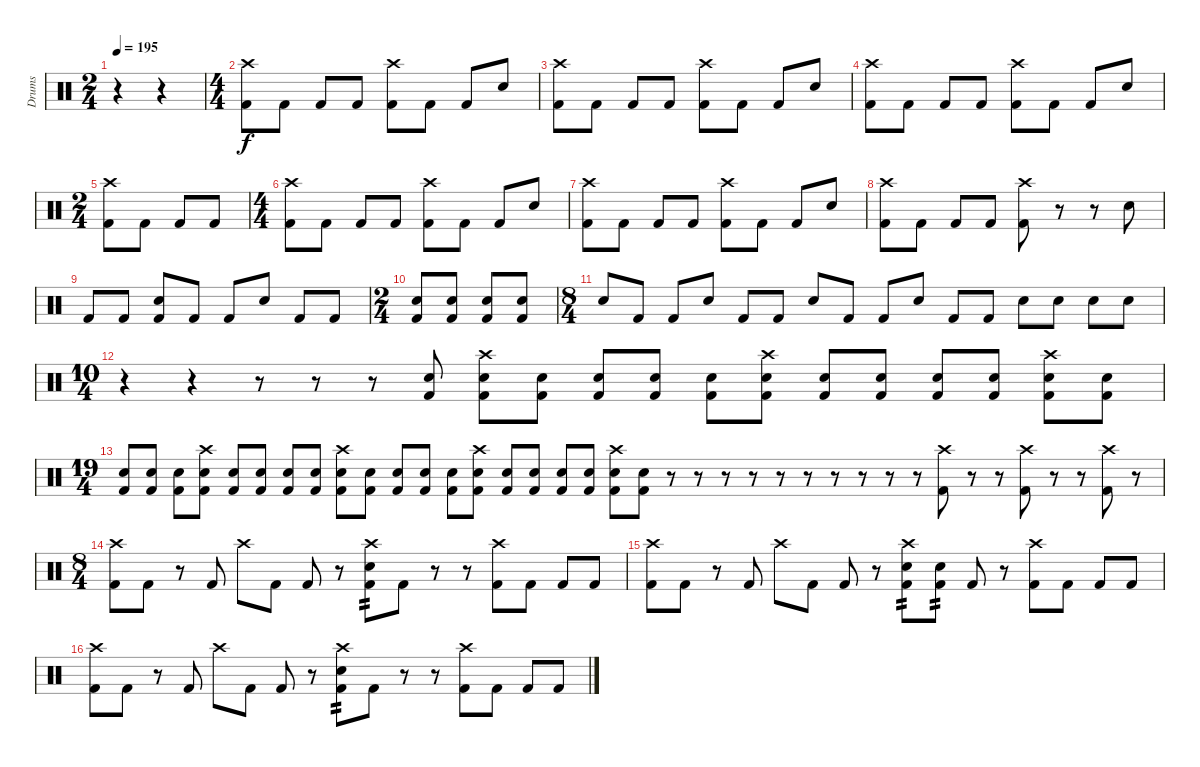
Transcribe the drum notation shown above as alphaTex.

\track ("Drums" "Drums") {instrument percussion}
\staff
\articulation defaults
\ts (2 4)
\tempo 195
\clef neutral
\ks c
r.4{dy f} r.4 |
\ts (4 4)
("Crash high (hit)" "Kick (hit) 2").8 "Kick (hit) 2".8 "Kick (hit) 2".8 "Kick (hit) 2".8 ("Crash high (hit)" "Kick (hit) 2").8 "Kick (hit) 2".8 "Kick (hit) 2".8 "Electric Snare (hit)".8 |
("Crash high (hit)" "Kick (hit) 2").8 "Kick (hit) 2".8 "Kick (hit) 2".8 "Kick (hit) 2".8 ("Crash high (hit)" "Kick (hit) 2").8 "Kick (hit) 2".8 "Kick (hit) 2".8 "Electric Snare (hit)".8 |
("Crash high (hit)" "Kick (hit) 2").8 "Kick (hit) 2".8 "Kick (hit) 2".8 "Kick (hit) 2".8 ("Crash high (hit)" "Kick (hit) 2").8 "Kick (hit) 2".8 "Kick (hit) 2".8 "Electric Snare (hit)".8 |
\ts (2 4)
("Crash high (hit)" "Kick (hit) 2").8 "Kick (hit) 2".8 "Kick (hit) 2".8 "Kick (hit) 2".8 |
\ts (4 4)
("Crash high (hit)" "Kick (hit) 2").8 "Kick (hit) 2".8 "Kick (hit) 2".8 "Kick (hit) 2".8 ("Crash high (hit)" "Kick (hit) 2").8 "Kick (hit) 2".8 "Kick (hit) 2".8 "Electric Snare (hit)".8 |
("Crash high (hit)" "Kick (hit) 2").8 "Kick (hit) 2".8 "Kick (hit) 2".8 "Kick (hit) 2".8 ("Crash high (hit)" "Kick (hit) 2").8 "Kick (hit) 2".8 "Kick (hit) 2".8 "Electric Snare (hit)".8 |
("Crash high (hit)" "Kick (hit) 2").8 "Kick (hit) 2".8 "Kick (hit) 2".8 "Kick (hit) 2".8 ("Crash high (hit)" "Kick (hit) 2").8 r.8 r.8 "Electric Snare (hit)".8 |
"Kick (hit) 2".8 "Kick (hit) 2".8 ("Electric Snare (hit)" "Kick (hit) 2").8 "Kick (hit) 2".8 "Kick (hit) 2".8 "Electric Snare (hit)".8 "Kick (hit) 2".8 "Kick (hit) 2".8 |
\ts (2 4)
("Electric Snare (hit)" "Kick (hit) 2").8 ("Electric Snare (hit)" "Kick (hit) 2").8 ("Electric Snare (hit)" "Kick (hit) 2").8 ("Electric Snare (hit)" "Kick (hit) 2").8 |
\ts (8 4)
"Electric Snare (hit)".8 "Kick (hit) 2".8 "Kick (hit) 2".8 "Electric Snare (hit)".8 "Kick (hit) 2".8 "Kick (hit) 2".8 "Electric Snare (hit)".8 "Kick (hit) 2".8 "Kick (hit) 2".8 "Electric Snare (hit)".8 "Kick (hit) 2".8 "Kick (hit) 2".8 "Electric Snare (hit)".8 "Electric Snare (hit)".8 "Electric Snare (hit)".8 "Electric Snare (hit)".8 |
\ts (10 4)
r.4 r.4 r.8 r.8 r.8 ("Electric Snare (hit)" "Kick (hit) 2").8 ("Crash high (hit)" "Electric Snare (hit)" "Kick (hit) 2").8 ("Electric Snare (hit)" "Kick (hit) 2").8 ("Electric Snare (hit)" "Kick (hit) 2").8 ("Electric Snare (hit)" "Kick (hit) 2").8 ("Electric Snare (hit)" "Kick (hit) 2").8 ("Crash high (hit)" "Electric Snare (hit)" "Kick (hit) 2").8 ("Electric Snare (hit)" "Kick (hit) 2").8 ("Electric Snare (hit)" "Kick (hit) 2").8 ("Electric Snare (hit)" "Kick (hit) 2").8 ("Electric Snare (hit)" "Kick (hit) 2").8 ("Crash high (hit)" "Electric Snare (hit)" "Kick (hit) 2").8 ("Electric Snare (hit)" "Kick (hit) 2").8 |
\ts (19 4)
("Electric Snare (hit)" "Kick (hit) 2").8 ("Electric Snare (hit)" "Kick (hit) 2").8 ("Electric Snare (hit)" "Kick (hit) 2").8 ("Crash high (hit)" "Electric Snare (hit)" "Kick (hit) 2").8 ("Electric Snare (hit)" "Kick (hit) 2").8 ("Electric Snare (hit)" "Kick (hit) 2").8 ("Electric Snare (hit)" "Kick (hit) 2").8 ("Electric Snare (hit)" "Kick (hit) 2").8 ("Crash high (hit)" "Electric Snare (hit)" "Kick (hit) 2").8 ("Electric Snare (hit)" "Kick (hit) 2").8 ("Electric Snare (hit)" "Kick (hit) 2").8 ("Electric Snare (hit)" "Kick (hit) 2").8 ("Electric Snare (hit)" "Kick (hit) 2").8 ("Crash high (hit)" "Electric Snare (hit)" "Kick (hit) 2").8 ("Electric Snare (hit)" "Kick (hit) 2").8 ("Electric Snare (hit)" "Kick (hit) 2").8 ("Electric Snare (hit)" "Kick (hit) 2").8 ("Electric Snare (hit)" "Kick (hit) 2").8 ("Crash high (hit)" "Electric Snare (hit)" "Kick (hit) 2").8 ("Electric Snare (hit)" "Kick (hit) 2").8 r.8 r.8 r.8 r.8 r.8 r.8 r.8 r.8 r.8 r.8 ("Crash high (hit)" "Kick (hit) 2").8 r.8 r.8 ("Crash high (hit)" "Kick (hit) 2").8 r.8 r.8 ("Crash high (hit)" "Kick (hit) 2").8 r.8 |
\ts (8 4)
("Crash high (hit)" "Kick (hit) 2").8 "Kick (hit) 2".8 r.8 "Kick (hit) 2".8 "Crash high (hit)".8 "Kick (hit) 2".8 "Kick (hit) 2".8 r.8 ("Crash high (hit)" "Electric Snare (hit)" "Kick (hit) 2").8{tp 2} "Kick (hit) 2".8 r.8 r.8 ("Crash high (hit)" "Kick (hit) 2").8 "Kick (hit) 2".8 "Kick (hit) 2".8 "Kick (hit) 2".8 |
("Crash high (hit)" "Kick (hit) 2").8 "Kick (hit) 2".8 r.8 "Kick (hit) 2".8 "Crash high (hit)".8 "Kick (hit) 2".8 "Kick (hit) 2".8 r.8 ("Crash high (hit)" "Electric Snare (hit)" "Kick (hit) 2").8{tp 2} ("Electric Snare (hit)" "Kick (hit) 2").8{tp 2} "Kick (hit) 2".8 r.8 ("Crash high (hit)" "Kick (hit) 2").8 "Kick (hit) 2".8 "Kick (hit) 2".8 "Kick (hit) 2".8 |
("Crash high (hit)" "Kick (hit) 2").8 "Kick (hit) 2".8 r.8 "Kick (hit) 2".8 "Crash high (hit)".8 "Kick (hit) 2".8 "Kick (hit) 2".8 r.8 ("Crash high (hit)" "Electric Snare (hit)" "Kick (hit) 2").8{tp 2} "Kick (hit) 2".8 r.8 r.8 ("Crash high (hit)" "Kick (hit) 2").8 "Kick (hit) 2".8 "Kick (hit) 2".8 "Kick (hit) 2".8
